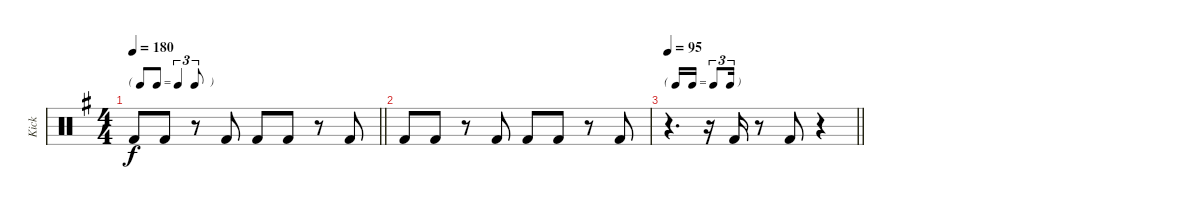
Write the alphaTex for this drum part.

\track ("Kick" "Kick") {instrument percussion}
\staff {score}
\articulation defaults
\ts (4 4)
\tf triplet8th
\tempo 180
\clef neutral
\barLineRight lightlight
\ks eminor "Kick (hit) 2".8{dy f} "Kick (hit) 2".8
r.8 "Kick (hit) 2".8 "Kick (hit) 2".8 "Kick (hit) 2".8 r.8 "Kick (hit) 2".8 |
"Kick (hit) 2".8 "Kick (hit) 2".8 r.8 "Kick (hit) 2".8 "Kick (hit) 2".8 "Kick (hit) 2".8 r.8 "Kick (hit) 2".8 |
\tf triplet16th
\tempo 95
\barLineRight lightlight
r.4{d} r.16 "Kick (hit) 2".16 r.8 "Kick (hit) 2".8 r.4
